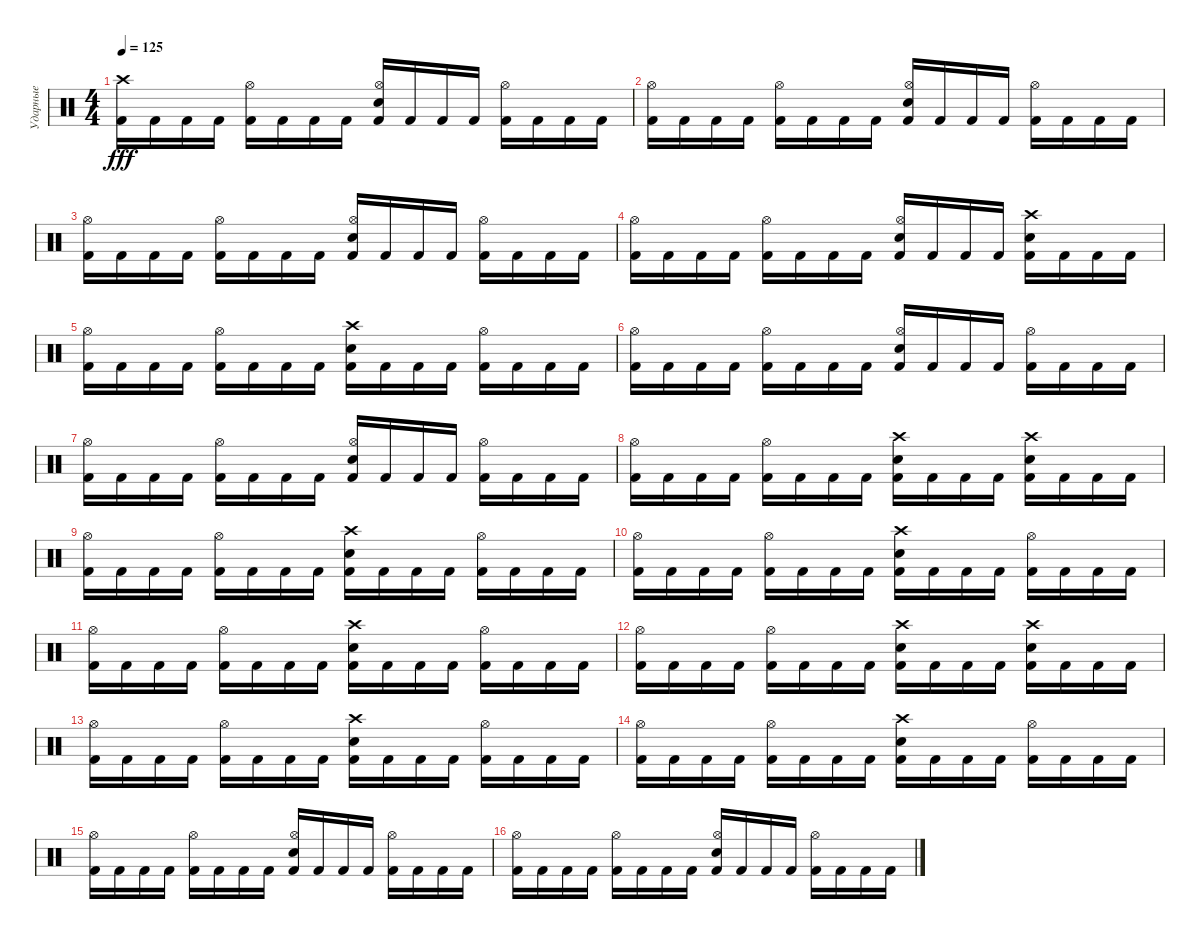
\track ("Ударные" "Ударные") {instrument percussion}
\staff {score}
\articulation defaults
\ts (4 4)
\tempo 125
\clef neutral
\ks c
("Crash high (hit)" "Kick (hit) 2").16{dy fff} "Kick (hit) 2".16 "Kick (hit) 2".16 "Kick (hit) 2".16 ("Hi-Hat (open)" "Kick (hit) 2").16 "Kick (hit) 2".16 "Kick (hit) 2".16 "Kick (hit) 2".16 ("Hi-Hat (open)" "Electric Snare (hit)" "Kick (hit) 2").16 "Kick (hit) 2".16 "Kick (hit) 2".16 "Kick (hit) 2".16 ("Hi-Hat (open)" "Kick (hit) 2").16 "Kick (hit) 2".16 "Kick (hit) 2".16 "Kick (hit) 2".16 |
("Hi-Hat (open)" "Kick (hit) 2").16 "Kick (hit) 2".16 "Kick (hit) 2".16 "Kick (hit) 2".16 ("Hi-Hat (open)" "Kick (hit) 2").16 "Kick (hit) 2".16 "Kick (hit) 2".16 "Kick (hit) 2".16 ("Hi-Hat (open)" "Electric Snare (hit)" "Kick (hit) 2").16 "Kick (hit) 2".16 "Kick (hit) 2".16 "Kick (hit) 2".16 ("Hi-Hat (open)" "Kick (hit) 2").16 "Kick (hit) 2".16 "Kick (hit) 2".16 "Kick (hit) 2".16 |
("Hi-Hat (open)" "Kick (hit) 2").16 "Kick (hit) 2".16 "Kick (hit) 2".16 "Kick (hit) 2".16 ("Hi-Hat (open)" "Kick (hit) 2").16 "Kick (hit) 2".16 "Kick (hit) 2".16 "Kick (hit) 2".16 ("Hi-Hat (open)" "Electric Snare (hit)" "Kick (hit) 2").16 "Kick (hit) 2".16 "Kick (hit) 2".16 "Kick (hit) 2".16 ("Hi-Hat (open)" "Kick (hit) 2").16 "Kick (hit) 2".16 "Kick (hit) 2".16 "Kick (hit) 2".16 |
("Hi-Hat (open)" "Kick (hit) 2").16 "Kick (hit) 2".16 "Kick (hit) 2".16 "Kick (hit) 2".16 ("Hi-Hat (open)" "Kick (hit) 2").16 "Kick (hit) 2".16 "Kick (hit) 2".16 "Kick (hit) 2".16 ("Hi-Hat (open)" "Electric Snare (hit)" "Kick (hit) 2").16 "Kick (hit) 2".16 "Kick (hit) 2".16 "Kick (hit) 2".16 ("Crash high (hit)" "Electric Snare (hit)" "Kick (hit) 2").16 "Kick (hit) 2".16 "Kick (hit) 2".16 "Kick (hit) 2".16 |
("Hi-Hat (open)" "Kick (hit) 2").16 "Kick (hit) 2".16 "Kick (hit) 2".16 "Kick (hit) 2".16 ("Hi-Hat (open)" "Kick (hit) 2").16 "Kick (hit) 2".16 "Kick (hit) 2".16 "Kick (hit) 2".16 ("Crash high (hit)" "Electric Snare (hit)" "Kick (hit) 2").16 "Kick (hit) 2".16 "Kick (hit) 2".16 "Kick (hit) 2".16 ("Hi-Hat (open)" "Kick (hit) 2").16 "Kick (hit) 2".16 "Kick (hit) 2".16 "Kick (hit) 2".16 |
("Hi-Hat (open)" "Kick (hit) 2").16 "Kick (hit) 2".16 "Kick (hit) 2".16 "Kick (hit) 2".16 ("Hi-Hat (open)" "Kick (hit) 2").16 "Kick (hit) 2".16 "Kick (hit) 2".16 "Kick (hit) 2".16 ("Hi-Hat (open)" "Electric Snare (hit)" "Kick (hit) 2").16 "Kick (hit) 2".16 "Kick (hit) 2".16 "Kick (hit) 2".16 ("Hi-Hat (open)" "Kick (hit) 2").16 "Kick (hit) 2".16 "Kick (hit) 2".16 "Kick (hit) 2".16 |
("Hi-Hat (open)" "Kick (hit) 2").16 "Kick (hit) 2".16 "Kick (hit) 2".16 "Kick (hit) 2".16 ("Hi-Hat (open)" "Kick (hit) 2").16 "Kick (hit) 2".16 "Kick (hit) 2".16 "Kick (hit) 2".16 ("Hi-Hat (open)" "Electric Snare (hit)" "Kick (hit) 2").16 "Kick (hit) 2".16 "Kick (hit) 2".16 "Kick (hit) 2".16 ("Hi-Hat (open)" "Kick (hit) 2").16 "Kick (hit) 2".16 "Kick (hit) 2".16 "Kick (hit) 2".16 |
("Hi-Hat (open)" "Kick (hit) 2").16 "Kick (hit) 2".16 "Kick (hit) 2".16 "Kick (hit) 2".16 ("Hi-Hat (open)" "Kick (hit) 2").16 "Kick (hit) 2".16 "Kick (hit) 2".16 "Kick (hit) 2".16 ("Crash high (hit)" "Electric Snare (hit)" "Kick (hit) 2").16 "Kick (hit) 2".16 "Kick (hit) 2".16 "Kick (hit) 2".16 ("Crash high (hit)" "Electric Snare (hit)" "Kick (hit) 2").16 "Kick (hit) 2".16 "Kick (hit) 2".16 "Kick (hit) 2".16 |
("Hi-Hat (open)" "Kick (hit) 2").16 "Kick (hit) 2".16 "Kick (hit) 2".16 "Kick (hit) 2".16 ("Hi-Hat (open)" "Kick (hit) 2").16 "Kick (hit) 2".16 "Kick (hit) 2".16 "Kick (hit) 2".16 ("Crash high (hit)" "Electric Snare (hit)" "Kick (hit) 2").16 "Kick (hit) 2".16 "Kick (hit) 2".16 "Kick (hit) 2".16 ("Hi-Hat (open)" "Kick (hit) 2").16 "Kick (hit) 2".16 "Kick (hit) 2".16 "Kick (hit) 2".16 |
("Hi-Hat (open)" "Kick (hit) 2").16 "Kick (hit) 2".16 "Kick (hit) 2".16 "Kick (hit) 2".16 ("Hi-Hat (open)" "Kick (hit) 2").16 "Kick (hit) 2".16 "Kick (hit) 2".16 "Kick (hit) 2".16 ("Crash high (hit)" "Electric Snare (hit)" "Kick (hit) 2").16 "Kick (hit) 2".16 "Kick (hit) 2".16 "Kick (hit) 2".16 ("Hi-Hat (open)" "Kick (hit) 2").16 "Kick (hit) 2".16 "Kick (hit) 2".16 "Kick (hit) 2".16 |
("Hi-Hat (open)" "Kick (hit) 2").16 "Kick (hit) 2".16 "Kick (hit) 2".16 "Kick (hit) 2".16 ("Hi-Hat (open)" "Kick (hit) 2").16 "Kick (hit) 2".16 "Kick (hit) 2".16 "Kick (hit) 2".16 ("Crash high (hit)" "Electric Snare (hit)" "Kick (hit) 2").16 "Kick (hit) 2".16 "Kick (hit) 2".16 "Kick (hit) 2".16 ("Hi-Hat (open)" "Kick (hit) 2").16 "Kick (hit) 2".16 "Kick (hit) 2".16 "Kick (hit) 2".16 |
("Hi-Hat (open)" "Kick (hit) 2").16 "Kick (hit) 2".16 "Kick (hit) 2".16 "Kick (hit) 2".16 ("Hi-Hat (open)" "Kick (hit) 2").16 "Kick (hit) 2".16 "Kick (hit) 2".16 "Kick (hit) 2".16 ("Crash high (hit)" "Electric Snare (hit)" "Kick (hit) 2").16 "Kick (hit) 2".16 "Kick (hit) 2".16 "Kick (hit) 2".16 ("Crash high (hit)" "Electric Snare (hit)" "Kick (hit) 2").16 "Kick (hit) 2".16 "Kick (hit) 2".16 "Kick (hit) 2".16 |
("Hi-Hat (open)" "Kick (hit) 2").16 "Kick (hit) 2".16 "Kick (hit) 2".16 "Kick (hit) 2".16 ("Hi-Hat (open)" "Kick (hit) 2").16 "Kick (hit) 2".16 "Kick (hit) 2".16 "Kick (hit) 2".16 ("Crash high (hit)" "Electric Snare (hit)" "Kick (hit) 2").16 "Kick (hit) 2".16 "Kick (hit) 2".16 "Kick (hit) 2".16 ("Hi-Hat (open)" "Kick (hit) 2").16 "Kick (hit) 2".16 "Kick (hit) 2".16 "Kick (hit) 2".16 |
("Hi-Hat (open)" "Kick (hit) 2").16 "Kick (hit) 2".16 "Kick (hit) 2".16 "Kick (hit) 2".16 ("Hi-Hat (open)" "Kick (hit) 2").16 "Kick (hit) 2".16 "Kick (hit) 2".16 "Kick (hit) 2".16 ("Crash high (hit)" "Electric Snare (hit)" "Kick (hit) 2").16 "Kick (hit) 2".16 "Kick (hit) 2".16 "Kick (hit) 2".16 ("Hi-Hat (open)" "Kick (hit) 2").16 "Kick (hit) 2".16 "Kick (hit) 2".16 "Kick (hit) 2".16 |
("Hi-Hat (open)" "Kick (hit) 2").16 "Kick (hit) 2".16 "Kick (hit) 2".16 "Kick (hit) 2".16 ("Hi-Hat (open)" "Kick (hit) 2").16 "Kick (hit) 2".16 "Kick (hit) 2".16 "Kick (hit) 2".16 ("Hi-Hat (open)" "Electric Snare (hit)" "Kick (hit) 2").16 "Kick (hit) 2".16 "Kick (hit) 2".16 "Kick (hit) 2".16 ("Hi-Hat (open)" "Kick (hit) 2").16 "Kick (hit) 2".16 "Kick (hit) 2".16 "Kick (hit) 2".16 |
("Hi-Hat (open)" "Kick (hit) 2").16 "Kick (hit) 2".16 "Kick (hit) 2".16 "Kick (hit) 2".16 ("Hi-Hat (open)" "Kick (hit) 2").16 "Kick (hit) 2".16 "Kick (hit) 2".16 "Kick (hit) 2".16 ("Hi-Hat (open)" "Electric Snare (hit)" "Kick (hit) 2").16 "Kick (hit) 2".16 "Kick (hit) 2".16 "Kick (hit) 2".16 ("Hi-Hat (open)" "Kick (hit) 2").16 "Kick (hit) 2".16 "Kick (hit) 2".16 "Kick (hit) 2".16
